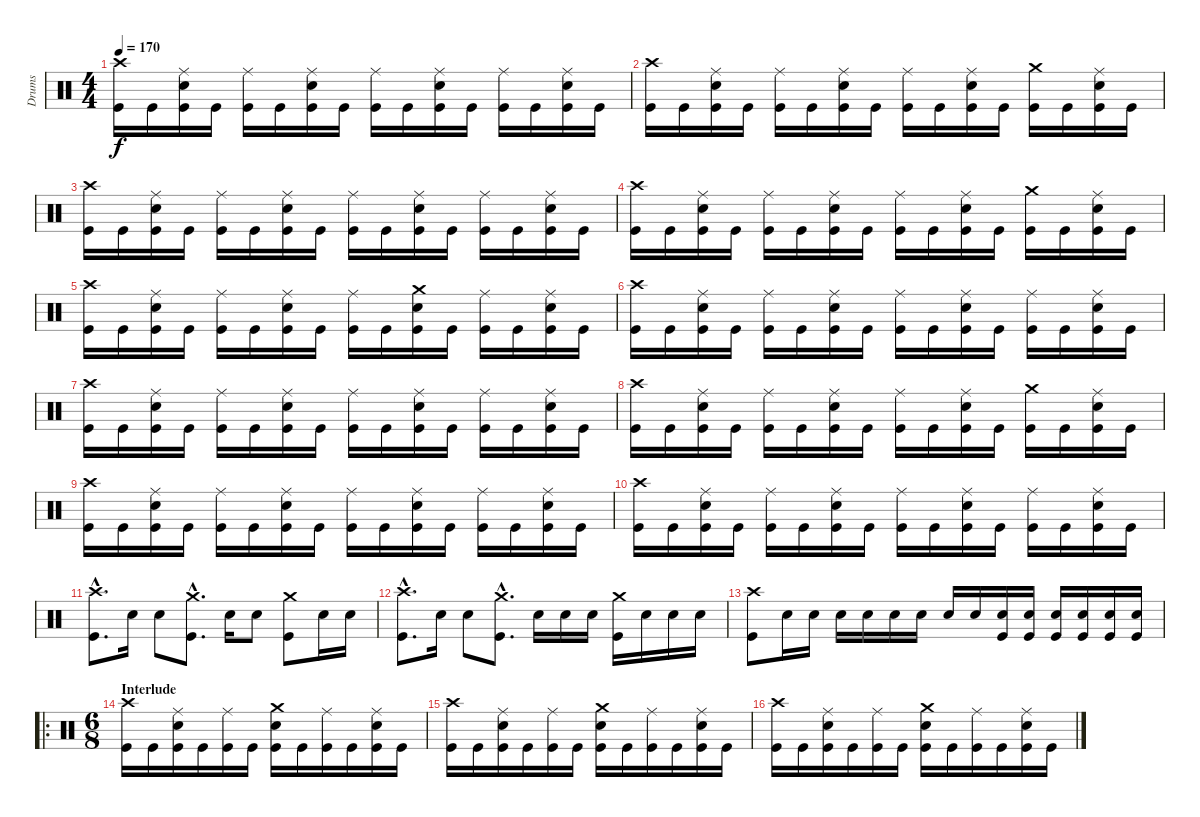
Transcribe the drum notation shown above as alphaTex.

\track ("Drums" "Drums") {instrument percussion}
\staff {score}
\articulation defaults
\ts (4 4)
\tempo 170
\clef neutral
\ks c
("Crash high (hit)" "Kick (hit)").16{dy f} "Kick (hit)".16 ("Ride (middle)" "Electric Snare (hit)" "Kick (hit)").16 "Kick (hit)".16 ("Ride (middle)" "Kick (hit)").16 "Kick (hit)".16 ("Ride (middle)" "Electric Snare (hit)" "Kick (hit)").16 "Kick (hit)".16 ("Ride (middle)" "Kick (hit)").16 "Kick (hit)".16 ("Ride (middle)" "Electric Snare (hit)" "Kick (hit)").16 "Kick (hit)".16 ("Ride (middle)" "Kick (hit)").16 "Kick (hit)".16 ("Ride (middle)" "Electric Snare (hit)" "Kick (hit)").16 "Kick (hit)".16 |
("Crash high (hit)" "Kick (hit)").16 "Kick (hit)".16 ("Ride (middle)" "Electric Snare (hit)" "Kick (hit)").16 "Kick (hit)".16 ("Ride (middle)" "Kick (hit)").16 "Kick (hit)".16 ("Ride (middle)" "Electric Snare (hit)" "Kick (hit)").16 "Kick (hit)".16 ("Ride (middle)" "Kick (hit)").16 "Kick (hit)".16 ("Ride (middle)" "Electric Snare (hit)" "Kick (hit)").16 "Kick (hit)".16 ("Crash medium (hit)" "Kick (hit)").16 "Kick (hit)".16 ("Ride (middle)" "Electric Snare (hit)" "Kick (hit)").16 "Kick (hit)".16 |
("Crash high (hit)" "Kick (hit)").16 "Kick (hit)".16 ("Ride (middle)" "Electric Snare (hit)" "Kick (hit)").16 "Kick (hit)".16 ("Ride (middle)" "Kick (hit)").16 "Kick (hit)".16 ("Ride (middle)" "Electric Snare (hit)" "Kick (hit)").16 "Kick (hit)".16 ("Ride (middle)" "Kick (hit)").16 "Kick (hit)".16 ("Ride (middle)" "Electric Snare (hit)" "Kick (hit)").16 "Kick (hit)".16 ("Ride (middle)" "Kick (hit)").16 "Kick (hit)".16 ("Ride (middle)" "Electric Snare (hit)" "Kick (hit)").16 "Kick (hit)".16 |
("Crash high (hit)" "Kick (hit)").16 "Kick (hit)".16 ("Ride (middle)" "Electric Snare (hit)" "Kick (hit)").16 "Kick (hit)".16 ("Ride (middle)" "Kick (hit)").16 "Kick (hit)".16 ("Ride (middle)" "Electric Snare (hit)" "Kick (hit)").16 "Kick (hit)".16 ("Ride (middle)" "Kick (hit)").16 "Kick (hit)".16 ("Ride (middle)" "Electric Snare (hit)" "Kick (hit)").16 "Kick (hit)".16 ("Crash medium (hit)" "Kick (hit)").16 "Kick (hit)".16 ("Ride (middle)" "Electric Snare (hit)" "Kick (hit)").16 "Kick (hit)".16 |
("Crash high (hit)" "Kick (hit)").16 "Kick (hit)".16 ("Ride (middle)" "Electric Snare (hit)" "Kick (hit)").16 "Kick (hit)".16 ("Ride (middle)" "Kick (hit)").16 "Kick (hit)".16 ("Ride (middle)" "Electric Snare (hit)" "Kick (hit)").16 "Kick (hit)".16 ("Ride (middle)" "Kick (hit)").16 "Kick (hit)".16 ("Crash medium (hit)" "Electric Snare (hit)" "Kick (hit)").16 "Kick (hit)".16 ("Ride (middle)" "Kick (hit)").16 "Kick (hit)".16 ("Ride (middle)" "Electric Snare (hit)" "Kick (hit)").16 "Kick (hit)".16 |
("Crash high (hit)" "Kick (hit)").16 "Kick (hit)".16 ("Ride (middle)" "Electric Snare (hit)" "Kick (hit)").16 "Kick (hit)".16 ("Ride (middle)" "Kick (hit)").16 "Kick (hit)".16 ("Ride (middle)" "Electric Snare (hit)" "Kick (hit)").16 "Kick (hit)".16 ("Ride (middle)" "Kick (hit)").16 "Kick (hit)".16 ("Ride (middle)" "Electric Snare (hit)" "Kick (hit)").16 "Kick (hit)".16 ("Ride (middle)" "Kick (hit)").16 "Kick (hit)".16 ("Ride (middle)" "Electric Snare (hit)" "Kick (hit)").16 "Kick (hit)".16 |
("Crash high (hit)" "Kick (hit)").16 "Kick (hit)".16 ("Ride (middle)" "Electric Snare (hit)" "Kick (hit)").16 "Kick (hit)".16 ("Ride (middle)" "Kick (hit)").16 "Kick (hit)".16 ("Ride (middle)" "Electric Snare (hit)" "Kick (hit)").16 "Kick (hit)".16 ("Ride (middle)" "Kick (hit)").16 "Kick (hit)".16 ("Ride (middle)" "Electric Snare (hit)" "Kick (hit)").16 "Kick (hit)".16 ("Ride (middle)" "Kick (hit)").16 "Kick (hit)".16 ("Ride (middle)" "Electric Snare (hit)" "Kick (hit)").16 "Kick (hit)".16 |
("Crash high (hit)" "Kick (hit)").16 "Kick (hit)".16 ("Ride (middle)" "Electric Snare (hit)" "Kick (hit)").16 "Kick (hit)".16 ("Ride (middle)" "Kick (hit)").16 "Kick (hit)".16 ("Ride (middle)" "Electric Snare (hit)" "Kick (hit)").16 "Kick (hit)".16 ("Ride (middle)" "Kick (hit)").16 "Kick (hit)".16 ("Ride (middle)" "Electric Snare (hit)" "Kick (hit)").16 "Kick (hit)".16 ("Crash medium (hit)" "Kick (hit)").16 "Kick (hit)".16 ("Ride (middle)" "Electric Snare (hit)" "Kick (hit)").16 "Kick (hit)".16 |
("Crash high (hit)" "Kick (hit)").16 "Kick (hit)".16 ("Ride (middle)" "Electric Snare (hit)" "Kick (hit)").16 "Kick (hit)".16 ("Ride (middle)" "Kick (hit)").16 "Kick (hit)".16 ("Ride (middle)" "Electric Snare (hit)" "Kick (hit)").16 "Kick (hit)".16 ("Ride (middle)" "Kick (hit)").16 "Kick (hit)".16 ("Ride (middle)" "Electric Snare (hit)" "Kick (hit)").16 "Kick (hit)".16 ("Ride (middle)" "Kick (hit)").16 "Kick (hit)".16 ("Ride (middle)" "Electric Snare (hit)" "Kick (hit)").16 "Kick (hit)".16 |
("Crash high (hit)" "Kick (hit)").16 "Kick (hit)".16 ("Ride (middle)" "Electric Snare (hit)" "Kick (hit)").16 "Kick (hit)".16 ("Ride (middle)" "Kick (hit)").16 "Kick (hit)".16 ("Ride (middle)" "Electric Snare (hit)" "Kick (hit)").16 "Kick (hit)".16 ("Ride (middle)" "Kick (hit)").16 "Kick (hit)".16 ("Ride (middle)" "Electric Snare (hit)" "Kick (hit)").16 "Kick (hit)".16 ("Ride (middle)" "Kick (hit)").16 "Kick (hit)".16 ("Ride (middle)" "Electric Snare (hit)" "Kick (hit)").16 "Kick (hit)".16 |
("Crash high (hit)"{hac} "Kick (hit)"{hac}).8{d} "Electric Snare (hit)".16 "Electric Snare (hit)".8 ("Crash medium (hit)"{hac} "Kick (hit)"{hac}).8{d} "Electric Snare (hit)".16 "Electric Snare (hit)".8 ("Crash medium (hit)" "Kick (hit)").8 "Electric Snare (hit)".16 "Electric Snare (hit)".16 |
("Crash high (hit)"{hac} "Kick (hit)"{hac}).8{d} "Electric Snare (hit)".16 "Electric Snare (hit)".8 ("Crash medium (hit)"{hac} "Kick (hit)"{hac}).8{d} "Electric Snare (hit)".16 "Electric Snare (hit)".16 "Electric Snare (hit)".16 ("Crash medium (hit)" "Kick (hit)").16 "Electric Snare (hit)".16 "Electric Snare (hit)".16 "Electric Snare (hit)".16 |
("Crash high (hit)" "Kick (hit)").8 "Electric Snare (hit)".16 "Electric Snare (hit)".16 "Electric Snare (hit)".16 "Electric Snare (hit)".16 "Electric Snare (hit)".16 "Electric Snare (hit)".16 "Electric Snare (hit)".16 "Electric Snare (hit)".16 ("Electric Snare (hit)" "Kick (hit)").16 ("Electric Snare (hit)" "Kick (hit)").16 ("Electric Snare (hit)" "Kick (hit)").16 ("Electric Snare (hit)" "Kick (hit)").16 ("Electric Snare (hit)" "Kick (hit)").16 ("Electric Snare (hit)" "Kick (hit)").16 |
\ro
\ts (6 8)
\section ("" "Interlude")
("Crash high (hit)" "Kick (hit)").16 "Kick (hit)".16 ("Ride (middle)" "Electric Snare (hit)" "Kick (hit)").16 "Kick (hit)".16 ("Ride (middle)" "Kick (hit)").16 "Kick (hit)".16 ("Crash medium (hit)" "Electric Snare (hit)" "Kick (hit)").16 "Kick (hit)".16 ("Ride (middle)" "Kick (hit)").16 "Kick (hit)".16 ("Ride (middle)" "Electric Snare (hit)" "Kick (hit)").16 "Kick (hit)".16 |
("Crash high (hit)" "Kick (hit)").16 "Kick (hit)".16 ("Ride (middle)" "Electric Snare (hit)" "Kick (hit)").16 "Kick (hit)".16 ("Ride (middle)" "Kick (hit)").16 "Kick (hit)".16 ("Crash medium (hit)" "Electric Snare (hit)" "Kick (hit)").16 "Kick (hit)".16 ("Ride (middle)" "Kick (hit)").16 "Kick (hit)".16 ("Ride (middle)" "Electric Snare (hit)" "Kick (hit)").16 "Kick (hit)".16 |
("Crash high (hit)" "Kick (hit)").16 "Kick (hit)".16 ("Ride (middle)" "Electric Snare (hit)" "Kick (hit)").16 "Kick (hit)".16 ("Ride (middle)" "Kick (hit)").16 "Kick (hit)".16 ("Crash medium (hit)" "Electric Snare (hit)" "Kick (hit)").16 "Kick (hit)".16 ("Ride (middle)" "Kick (hit)").16 "Kick (hit)".16 ("Ride (middle)" "Electric Snare (hit)" "Kick (hit)").16 "Kick (hit)".16
